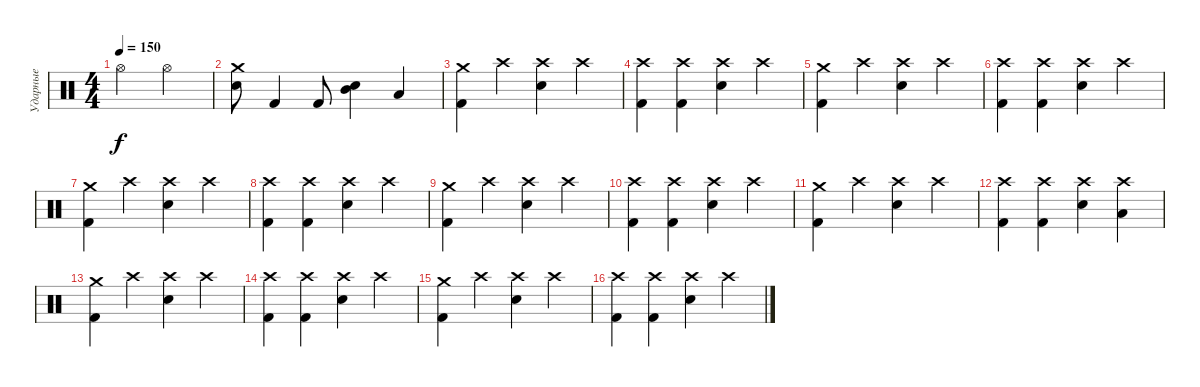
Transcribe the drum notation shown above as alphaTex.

\track ("Ударные" "Ударные") {instrument percussion}
\staff {score}
\articulation defaults
\ts (4 4)
\tempo 150
\clef neutral
\ks c "Hi-Hat (open)".2{dy f} "Hi-Hat (open)".2
|
("Crash medium (hit)" "Electric Snare (hit)").8{bu 60} "Kick (hit) 2".4 "Kick (hit) 2".8 ("Mid Tom (hit)" "Electric Snare (hit)").4 "Low Tom (hit)".4 |
("Crash medium (hit)" "Kick (hit) 2").4 "Crash high (hit)".4 ("Crash high (hit)" "Electric Snare (hit)").4 "Crash high (hit)".4 |
("Crash high (hit)" "Kick (hit) 2").4 ("Crash high (hit)" "Kick (hit) 2").4 ("Crash high (hit)" "Electric Snare (hit)").4 "Crash high (hit)".4 |
("Crash medium (hit)" "Kick (hit) 2").4 "Crash high (hit)".4 ("Crash high (hit)" "Electric Snare (hit)").4 "Crash high (hit)".4 |
("Crash high (hit)" "Kick (hit) 2").4 ("Crash high (hit)" "Kick (hit) 2").4 ("Crash high (hit)" "Electric Snare (hit)").4 "Crash high (hit)".4 |
("Crash medium (hit)" "Kick (hit) 2").4 "Crash high (hit)".4 ("Crash high (hit)" "Electric Snare (hit)").4 "Crash high (hit)".4 |
("Crash high (hit)" "Kick (hit) 2").4 ("Crash high (hit)" "Kick (hit) 2").4 ("Crash high (hit)" "Electric Snare (hit)").4 "Crash high (hit)".4 |
("Crash medium (hit)" "Kick (hit) 2").4 "Crash high (hit)".4 ("Crash high (hit)" "Electric Snare (hit)").4 "Crash high (hit)".4 |
("Crash high (hit)" "Kick (hit) 2").4 ("Crash high (hit)" "Kick (hit) 2").4 ("Crash high (hit)" "Electric Snare (hit)").4 "Crash high (hit)".4 |
("Crash medium (hit)" "Kick (hit) 2").4 "Crash high (hit)".4 ("Crash high (hit)" "Electric Snare (hit)").4 "Crash high (hit)".4 |
("Crash high (hit)" "Kick (hit) 2").4 ("Crash high (hit)" "Kick (hit) 2").4 ("Crash high (hit)" "Electric Snare (hit)").4 ("Crash high (hit)" "Low Tom (hit)").4 |
("Crash medium (hit)" "Kick (hit) 2").4 "Crash high (hit)".4 ("Crash high (hit)" "Electric Snare (hit)").4 "Crash high (hit)".4 |
("Crash high (hit)" "Kick (hit) 2").4 ("Crash high (hit)" "Kick (hit) 2").4 ("Crash high (hit)" "Electric Snare (hit)").4 "Crash high (hit)".4 |
("Crash medium (hit)" "Kick (hit) 2").4 "Crash high (hit)".4 ("Crash high (hit)" "Electric Snare (hit)").4 "Crash high (hit)".4 |
("Crash high (hit)" "Kick (hit) 2").4 ("Crash high (hit)" "Kick (hit) 2").4 ("Crash high (hit)" "Electric Snare (hit)").4 "Crash high (hit)".4
